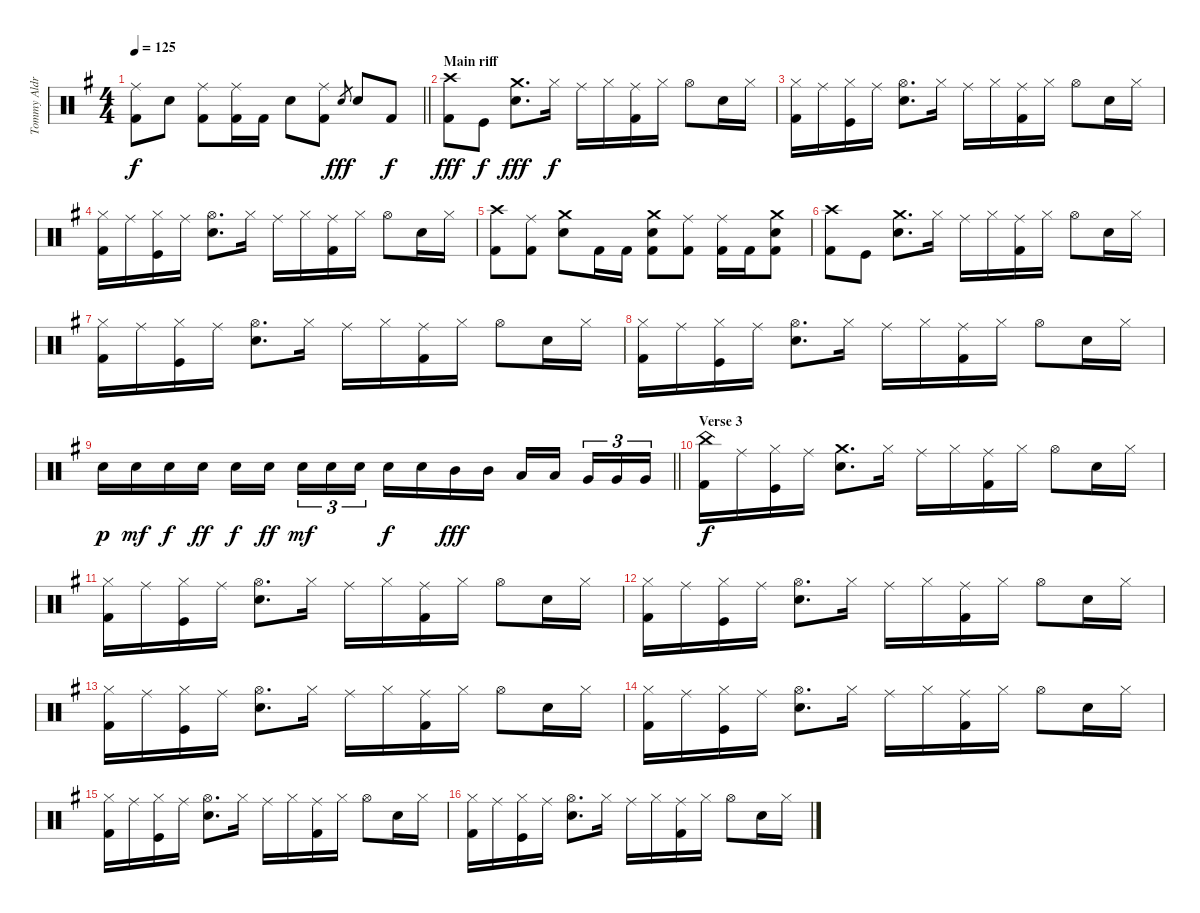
\track ("Tommy Aldridge" "Tommy Aldr") {instrument percussion}
\staff {score}
\articulation defaults
\ts (4 4)
\tempo 125
\clef neutral
\barLineRight lightlight
\ks eminor
("Ride (middle)" "Kick (hit) 2").8{dy f} "Snare (hit) 2".8 ("Ride (middle)" "Kick (hit) 2").8 ("Ride (middle)" "Kick (hit) 2").16 "Kick (hit) 2".16 "Snare (hit) 2".8 ("Ride (middle)" "Kick (hit) 2").8 "Snare (hit) 2".8{gr dy fff} "Snare (hit) 2".8 "Kick (hit) 2".8{dy f} |
\section ("" "Main riff")
("Crash high (hit)" "Kick (hit) 2").8{dy fff} "Kick (hit)".8{dy f} ("Crash medium (hit)" "Snare (hit) 2").8{d dy fff} "Hi-Hat (closed)".16{dy f} "Ride (middle)".16 "Hi-Hat (closed)".16 ("Ride (middle)" "Kick (hit) 2").16 "Hi-Hat (closed)".16 "Hi-Hat (open)".8 "Snare (hit) 2".16 "Hi-Hat (closed)".16 |
("Hi-Hat (closed)" "Kick (hit) 2").16 "Ride (middle)".16 ("Hi-Hat (closed)" "Kick (hit)").16 "Ride (middle)".16 ("Hi-Hat (open)" "Snare (hit) 2").8{d} "Hi-Hat (closed)".16 "Ride (middle)".16 "Hi-Hat (closed)".16 ("Ride (middle)" "Kick (hit) 2").16 "Hi-Hat (closed)".16 "Hi-Hat (open)".8 "Snare (hit) 2".16 "Hi-Hat (closed)".16 |
("Hi-Hat (closed)" "Kick (hit) 2").16 "Ride (middle)".16 ("Hi-Hat (closed)" "Kick (hit)").16 "Ride (middle)".16 ("Hi-Hat (open)" "Snare (hit) 2").8{d} "Hi-Hat (closed)".16 "Ride (middle)".16 "Hi-Hat (closed)".16 ("Ride (middle)" "Kick (hit) 2").16 "Hi-Hat (closed)".16 "Hi-Hat (open)".8 "Snare (hit) 2".16 "Hi-Hat (closed)".16 |
("Crash high (hit)" "Kick (hit) 2").8 ("Ride (middle)" "Kick (hit) 2").8 ("Crash medium (hit)" "Snare (hit) 2").8 "Kick (hit) 2".16 "Kick (hit) 2".16 ("Crash medium (hit)" "Snare (hit) 2" "Kick (hit) 2").8 ("Ride (middle)" "Kick (hit) 2").8 ("Ride (middle)" "Kick (hit) 2").16 "Kick (hit) 2".16 ("Crash medium (hit)" "Snare (hit) 2" "Kick (hit) 2").8 |
("Crash high (hit)" "Kick (hit) 2").8 "Kick (hit)".8 ("Crash medium (hit)" "Snare (hit) 2").8{d} "Hi-Hat (closed)".16 "Ride (middle)".16 "Hi-Hat (closed)".16 ("Ride (middle)" "Kick (hit) 2").16 "Hi-Hat (closed)".16 "Hi-Hat (open)".8 "Snare (hit) 2".16 "Hi-Hat (closed)".16 |
("Hi-Hat (closed)" "Kick (hit) 2").16 "Ride (middle)".16 ("Hi-Hat (closed)" "Kick (hit)").16 "Ride (middle)".16 ("Hi-Hat (open)" "Snare (hit) 2").8{d} "Hi-Hat (closed)".16 "Ride (middle)".16 "Hi-Hat (closed)".16 ("Ride (middle)" "Kick (hit) 2").16 "Hi-Hat (closed)".16 "Hi-Hat (open)".8 "Snare (hit) 2".16 "Hi-Hat (closed)".16 |
("Hi-Hat (closed)" "Kick (hit) 2").16 "Ride (middle)".16 ("Hi-Hat (closed)" "Kick (hit)").16 "Ride (middle)".16 ("Hi-Hat (open)" "Snare (hit) 2").8{d} "Hi-Hat (closed)".16 "Ride (middle)".16 "Hi-Hat (closed)".16 ("Ride (middle)" "Kick (hit) 2").16 "Hi-Hat (closed)".16 "Hi-Hat (open)".8 "Snare (hit) 2".16 "Hi-Hat (closed)".16 |
\barLineRight lightlight "Snare (hit) 2".16{dy p} "Snare (hit) 2".16{dy mf} "Snare (hit) 2".16{dy f} "Snare (hit) 2".16{dy ff} "Snare (hit) 2".16{dy f} "Snare (hit) 2".16{dy ff beam splitsecondary} "Snare (hit) 2".16{tu (3 2) dy mf} "Snare (hit) 2".16{tu (3 2)} "Snare (hit) 2".16{tu (3 2)} "Snare (hit) 2".16{dy f} "Snare (hit) 2".16 "Mid Tom (hit)".16{dy fff} "Mid Tom (hit)".16 "Low Tom (hit)".16 "Low Tom (hit)".16{beam splitsecondary} "Very Low Tom (hit)".16{tu (3 2)} "Very Low Tom (hit)".16{tu (3 2)} "Very Low Tom (hit)".16{tu (3 2)}
|
\section ("" "Verse 3")
("China (hit)" "Kick (hit) 2").16{dy f} "Ride (middle)".16 ("Hi-Hat (closed)" "Kick (hit)").16 "Ride (middle)".16 ("Crash medium (hit)" "Snare (hit) 2").8{d} "Hi-Hat (closed)".16 "Ride (middle)".16 "Hi-Hat (closed)".16 ("Ride (middle)" "Kick (hit) 2").16 "Hi-Hat (closed)".16 "Hi-Hat (open)".8 "Snare (hit) 2".16 "Hi-Hat (closed)".16 |
("Hi-Hat (closed)" "Kick (hit) 2").16 "Ride (middle)".16 ("Hi-Hat (closed)" "Kick (hit)").16 "Ride (middle)".16 ("Hi-Hat (open)" "Snare (hit) 2").8{d} "Hi-Hat (closed)".16 "Ride (middle)".16 "Hi-Hat (closed)".16 ("Ride (middle)" "Kick (hit) 2").16 "Hi-Hat (closed)".16 "Hi-Hat (open)".8 "Snare (hit) 2".16 "Hi-Hat (closed)".16 |
("Hi-Hat (closed)" "Kick (hit) 2").16 "Ride (middle)".16 ("Hi-Hat (closed)" "Kick (hit)").16 "Ride (middle)".16 ("Hi-Hat (open)" "Snare (hit) 2").8{d} "Hi-Hat (closed)".16 "Ride (middle)".16 "Hi-Hat (closed)".16 ("Ride (middle)" "Kick (hit) 2").16 "Hi-Hat (closed)".16 "Hi-Hat (open)".8 "Snare (hit) 2".16 "Hi-Hat (closed)".16 |
("Hi-Hat (closed)" "Kick (hit) 2").16 "Ride (middle)".16 ("Hi-Hat (closed)" "Kick (hit)").16 "Ride (middle)".16 ("Hi-Hat (open)" "Snare (hit) 2").8{d} "Hi-Hat (closed)".16 "Ride (middle)".16 "Hi-Hat (closed)".16 ("Ride (middle)" "Kick (hit) 2").16 "Hi-Hat (closed)".16 "Hi-Hat (open)".8 "Snare (hit) 2".16 "Hi-Hat (closed)".16 |
("Hi-Hat (closed)" "Kick (hit) 2").16 "Ride (middle)".16 ("Hi-Hat (closed)" "Kick (hit)").16 "Ride (middle)".16 ("Hi-Hat (open)" "Snare (hit) 2").8{d} "Hi-Hat (closed)".16 "Ride (middle)".16 "Hi-Hat (closed)".16 ("Ride (middle)" "Kick (hit) 2").16 "Hi-Hat (closed)".16 "Hi-Hat (open)".8 "Snare (hit) 2".16 "Hi-Hat (closed)".16 |
("Hi-Hat (closed)" "Kick (hit) 2").16 "Ride (middle)".16 ("Hi-Hat (closed)" "Kick (hit)").16 "Ride (middle)".16 ("Hi-Hat (open)" "Snare (hit) 2").8{d} "Hi-Hat (closed)".16 "Ride (middle)".16 "Hi-Hat (closed)".16 ("Ride (middle)" "Kick (hit) 2").16 "Hi-Hat (closed)".16 "Hi-Hat (open)".8 "Snare (hit) 2".16 "Hi-Hat (closed)".16 |
("Hi-Hat (closed)" "Kick (hit) 2").16 "Ride (middle)".16 ("Hi-Hat (closed)" "Kick (hit)").16 "Ride (middle)".16 ("Hi-Hat (open)" "Snare (hit) 2").8{d} "Hi-Hat (closed)".16 "Ride (middle)".16 "Hi-Hat (closed)".16 ("Ride (middle)" "Kick (hit) 2").16 "Hi-Hat (closed)".16 "Hi-Hat (open)".8 "Snare (hit) 2".16 "Hi-Hat (closed)".16
